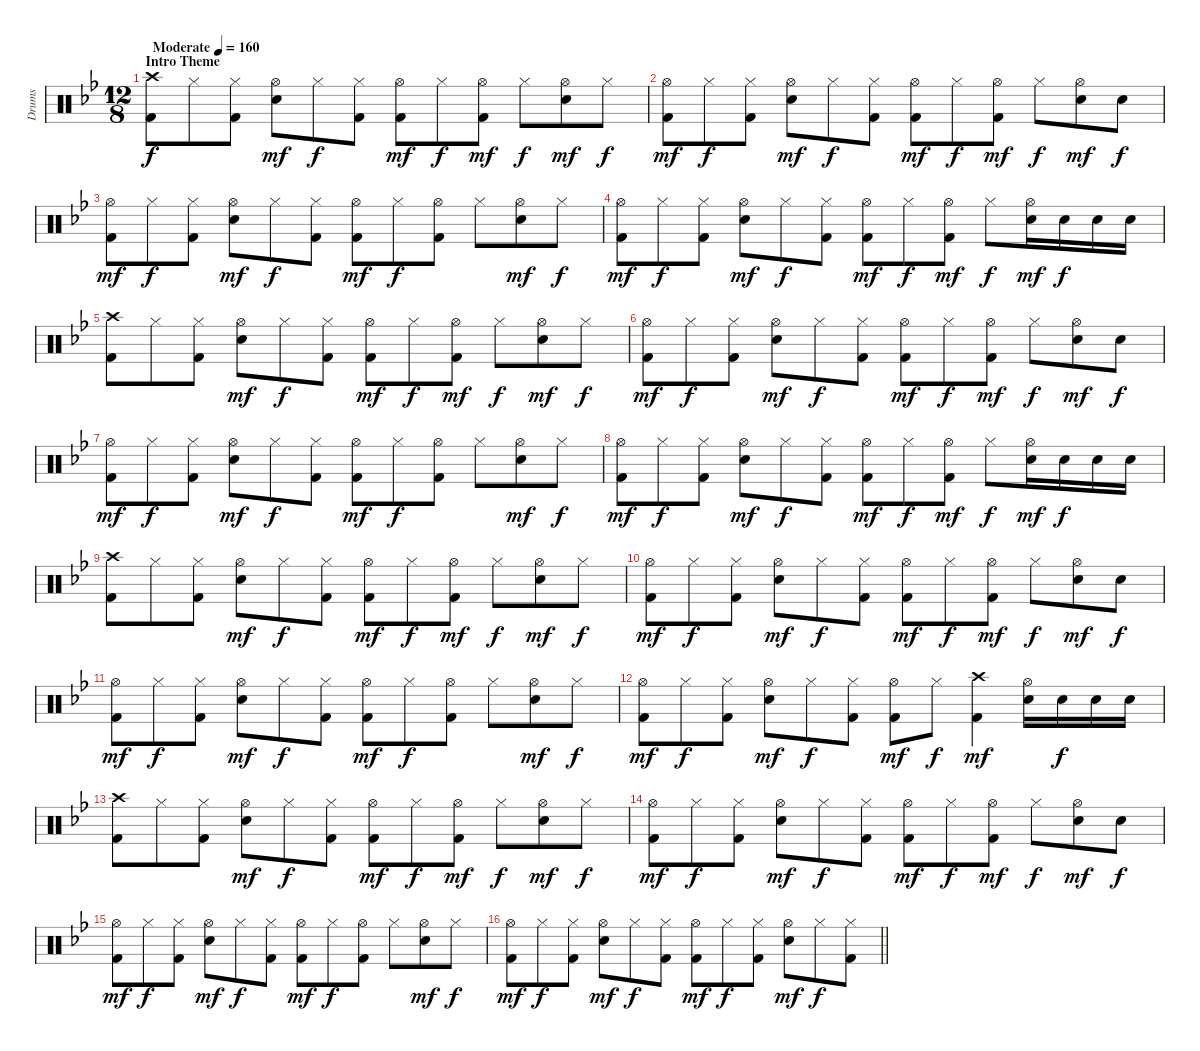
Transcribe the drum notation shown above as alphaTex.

\track ("Drums" "Drums") {instrument percussion}
\staff {score}
\articulation defaults
\ts (12 8)
\section ("" "Intro Theme")
\tempo (160 "Moderate")
\clef neutral
\ks bb
("Crash high (hit)" "Kick (hit) 2").8{dy f} "Hi-Hat (closed)".8 ("Hi-Hat (closed)" "Kick (hit) 2").8 ("Hi-Hat (open)" "Electric Snare (hit)").8{dy mf} "Hi-Hat (closed)".8{dy f} ("Hi-Hat (closed)" "Kick (hit) 2").8 ("Hi-Hat (open)" "Kick (hit) 2").8{dy mf} "Hi-Hat (closed)".8{dy f} ("Hi-Hat (open)" "Kick (hit) 2").8{dy mf} "Hi-Hat (closed)".8{dy f} ("Hi-Hat (open)" "Electric Snare (hit)").8{dy mf} "Hi-Hat (closed)".8{dy f} |
("Hi-Hat (open)" "Kick (hit) 2").8{dy mf} "Hi-Hat (closed)".8{dy f} ("Hi-Hat (closed)" "Kick (hit) 2").8 ("Hi-Hat (open)" "Electric Snare (hit)").8{dy mf} "Hi-Hat (closed)".8{dy f} ("Hi-Hat (closed)" "Kick (hit) 2").8 ("Hi-Hat (open)" "Kick (hit) 2").8{dy mf} "Hi-Hat (closed)".8{dy f} ("Hi-Hat (open)" "Kick (hit) 2").8{dy mf} "Hi-Hat (closed)".8{dy f} ("Hi-Hat (open)" "Electric Snare (hit)").8{dy mf} "Electric Snare (hit)".8{dy f} |
("Hi-Hat (open)" "Kick (hit) 2").8{dy mf} "Hi-Hat (closed)".8{dy f} ("Hi-Hat (closed)" "Kick (hit) 2").8 ("Hi-Hat (open)" "Electric Snare (hit)").8{dy mf} "Hi-Hat (closed)".8{dy f} ("Hi-Hat (closed)" "Kick (hit) 2").8 ("Hi-Hat (open)" "Kick (hit) 2").8{dy mf} "Hi-Hat (closed)".8{dy f} ("Hi-Hat (open)" "Kick (hit) 2").8 "Hi-Hat (closed)".8 ("Hi-Hat (open)" "Electric Snare (hit)").8{dy mf} "Hi-Hat (closed)".8{dy f} |
("Hi-Hat (open)" "Kick (hit) 2").8{dy mf} "Hi-Hat (closed)".8{dy f} ("Hi-Hat (closed)" "Kick (hit) 2").8 ("Hi-Hat (open)" "Electric Snare (hit)").8{dy mf} "Hi-Hat (closed)".8{dy f} ("Hi-Hat (closed)" "Kick (hit) 2").8 ("Hi-Hat (open)" "Kick (hit) 2").8{dy mf} "Hi-Hat (closed)".8{dy f} ("Hi-Hat (open)" "Kick (hit) 2").8{dy mf} "Hi-Hat (closed)".8{dy f} ("Hi-Hat (open)" "Electric Snare (hit)").16{dy mf} "Electric Snare (hit)".16{dy f} "Electric Snare (hit)".16 "Electric Snare (hit)".16 |
("Crash high (hit)" "Kick (hit) 2").8 "Hi-Hat (closed)".8 ("Hi-Hat (closed)" "Kick (hit) 2").8 ("Hi-Hat (open)" "Electric Snare (hit)").8{dy mf} "Hi-Hat (closed)".8{dy f} ("Hi-Hat (closed)" "Kick (hit) 2").8 ("Hi-Hat (open)" "Kick (hit) 2").8{dy mf} "Hi-Hat (closed)".8{dy f} ("Hi-Hat (open)" "Kick (hit) 2").8{dy mf} "Hi-Hat (closed)".8{dy f} ("Hi-Hat (open)" "Electric Snare (hit)").8{dy mf} "Hi-Hat (closed)".8{dy f} |
("Hi-Hat (open)" "Kick (hit) 2").8{dy mf} "Hi-Hat (closed)".8{dy f} ("Hi-Hat (closed)" "Kick (hit) 2").8 ("Hi-Hat (open)" "Electric Snare (hit)").8{dy mf} "Hi-Hat (closed)".8{dy f} ("Hi-Hat (closed)" "Kick (hit) 2").8 ("Hi-Hat (open)" "Kick (hit) 2").8{dy mf} "Hi-Hat (closed)".8{dy f} ("Hi-Hat (open)" "Kick (hit) 2").8{dy mf} "Hi-Hat (closed)".8{dy f} ("Hi-Hat (open)" "Electric Snare (hit)").8{dy mf} "Electric Snare (hit)".8{dy f} |
("Hi-Hat (open)" "Kick (hit) 2").8{dy mf} "Hi-Hat (closed)".8{dy f} ("Hi-Hat (closed)" "Kick (hit) 2").8 ("Hi-Hat (open)" "Electric Snare (hit)").8{dy mf} "Hi-Hat (closed)".8{dy f} ("Hi-Hat (closed)" "Kick (hit) 2").8 ("Hi-Hat (open)" "Kick (hit) 2").8{dy mf} "Hi-Hat (closed)".8{dy f} ("Hi-Hat (open)" "Kick (hit) 2").8 "Hi-Hat (closed)".8 ("Hi-Hat (open)" "Electric Snare (hit)").8{dy mf} "Hi-Hat (closed)".8{dy f} |
("Hi-Hat (open)" "Kick (hit) 2").8{dy mf} "Hi-Hat (closed)".8{dy f} ("Hi-Hat (closed)" "Kick (hit) 2").8 ("Hi-Hat (open)" "Electric Snare (hit)").8{dy mf} "Hi-Hat (closed)".8{dy f} ("Hi-Hat (closed)" "Kick (hit) 2").8 ("Hi-Hat (open)" "Kick (hit) 2").8{dy mf} "Hi-Hat (closed)".8{dy f} ("Hi-Hat (open)" "Kick (hit) 2").8{dy mf} "Hi-Hat (closed)".8{dy f} ("Hi-Hat (open)" "Electric Snare (hit)").16{dy mf} "Electric Snare (hit)".16{dy f} "Electric Snare (hit)".16 "Electric Snare (hit)".16 |
("Crash high (hit)" "Kick (hit) 2").8 "Hi-Hat (closed)".8 ("Hi-Hat (closed)" "Kick (hit) 2").8 ("Hi-Hat (open)" "Electric Snare (hit)").8{dy mf} "Hi-Hat (closed)".8{dy f} ("Hi-Hat (closed)" "Kick (hit) 2").8 ("Hi-Hat (open)" "Kick (hit) 2").8{dy mf} "Hi-Hat (closed)".8{dy f} ("Hi-Hat (open)" "Kick (hit) 2").8{dy mf} "Hi-Hat (closed)".8{dy f} ("Hi-Hat (open)" "Electric Snare (hit)").8{dy mf} "Hi-Hat (closed)".8{dy f} |
("Hi-Hat (open)" "Kick (hit) 2").8{dy mf} "Hi-Hat (closed)".8{dy f} ("Hi-Hat (closed)" "Kick (hit) 2").8 ("Hi-Hat (open)" "Electric Snare (hit)").8{dy mf} "Hi-Hat (closed)".8{dy f} ("Hi-Hat (closed)" "Kick (hit) 2").8 ("Hi-Hat (open)" "Kick (hit) 2").8{dy mf} "Hi-Hat (closed)".8{dy f} ("Hi-Hat (open)" "Kick (hit) 2").8{dy mf} "Hi-Hat (closed)".8{dy f} ("Hi-Hat (open)" "Electric Snare (hit)").8{dy mf} "Electric Snare (hit)".8{dy f} |
("Hi-Hat (open)" "Kick (hit) 2").8{dy mf} "Hi-Hat (closed)".8{dy f} ("Hi-Hat (closed)" "Kick (hit) 2").8 ("Hi-Hat (open)" "Electric Snare (hit)").8{dy mf} "Hi-Hat (closed)".8{dy f} ("Hi-Hat (closed)" "Kick (hit) 2").8 ("Hi-Hat (open)" "Kick (hit) 2").8{dy mf} "Hi-Hat (closed)".8{dy f} ("Hi-Hat (open)" "Kick (hit) 2").8 "Hi-Hat (closed)".8 ("Hi-Hat (open)" "Electric Snare (hit)").8{dy mf} "Hi-Hat (closed)".8{dy f} |
("Hi-Hat (open)" "Kick (hit) 2").8{dy mf} "Hi-Hat (closed)".8{dy f} ("Hi-Hat (closed)" "Kick (hit) 2").8 ("Hi-Hat (open)" "Electric Snare (hit)").8{dy mf} "Hi-Hat (closed)".8{dy f} ("Hi-Hat (closed)" "Kick (hit) 2").8 ("Hi-Hat (open)" "Kick (hit) 2").8{dy mf} "Hi-Hat (closed)".8{dy f} ("Crash high (hit)" "Kick (hit) 2").4{dy mf} ("Hi-Hat (open)" "Electric Snare (hit)").16 "Electric Snare (hit)".16{dy f} "Electric Snare (hit)".16 "Electric Snare (hit)".16 |
("Crash high (hit)" "Kick (hit) 2").8 "Hi-Hat (closed)".8 ("Hi-Hat (closed)" "Kick (hit) 2").8 ("Hi-Hat (open)" "Electric Snare (hit)").8{dy mf} "Hi-Hat (closed)".8{dy f} ("Hi-Hat (closed)" "Kick (hit) 2").8 ("Hi-Hat (open)" "Kick (hit) 2").8{dy mf} "Hi-Hat (closed)".8{dy f} ("Hi-Hat (open)" "Kick (hit) 2").8{dy mf} "Hi-Hat (closed)".8{dy f} ("Hi-Hat (open)" "Electric Snare (hit)").8{dy mf} "Hi-Hat (closed)".8{dy f} |
("Hi-Hat (open)" "Kick (hit) 2").8{dy mf} "Hi-Hat (closed)".8{dy f} ("Hi-Hat (closed)" "Kick (hit) 2").8 ("Hi-Hat (open)" "Electric Snare (hit)").8{dy mf} "Hi-Hat (closed)".8{dy f} ("Hi-Hat (closed)" "Kick (hit) 2").8 ("Hi-Hat (open)" "Kick (hit) 2").8{dy mf} "Hi-Hat (closed)".8{dy f} ("Hi-Hat (open)" "Kick (hit) 2").8{dy mf} "Hi-Hat (closed)".8{dy f} ("Hi-Hat (open)" "Electric Snare (hit)").8{dy mf} "Electric Snare (hit)".8{dy f} |
("Hi-Hat (open)" "Kick (hit) 2").8{dy mf} "Hi-Hat (closed)".8{dy f} ("Hi-Hat (closed)" "Kick (hit) 2").8 ("Hi-Hat (open)" "Electric Snare (hit)").8{dy mf} "Hi-Hat (closed)".8{dy f} ("Hi-Hat (closed)" "Kick (hit) 2").8 ("Hi-Hat (open)" "Kick (hit) 2").8{dy mf} "Hi-Hat (closed)".8{dy f} ("Hi-Hat (open)" "Kick (hit) 2").8 "Hi-Hat (closed)".8 ("Hi-Hat (open)" "Electric Snare (hit)").8{dy mf} "Hi-Hat (closed)".8{dy f} |
\barLineRight lightlight
("Hi-Hat (open)" "Kick (hit) 2").8{dy mf} "Hi-Hat (closed)".8{dy f} ("Hi-Hat (closed)" "Kick (hit) 2").8 ("Hi-Hat (open)" "Electric Snare (hit)").8{dy mf} "Hi-Hat (closed)".8{dy f} ("Hi-Hat (closed)" "Kick (hit) 2").8 ("Hi-Hat (open)" "Kick (hit) 2").8{dy mf} "Hi-Hat (closed)".8{dy f} ("Hi-Hat (closed)" "Kick (hit) 2").8 ("Hi-Hat (open)" "Electric Snare (hit)").8{dy mf} "Hi-Hat (closed)".8{dy f} ("Hi-Hat (closed)" "Kick (hit) 2").8
